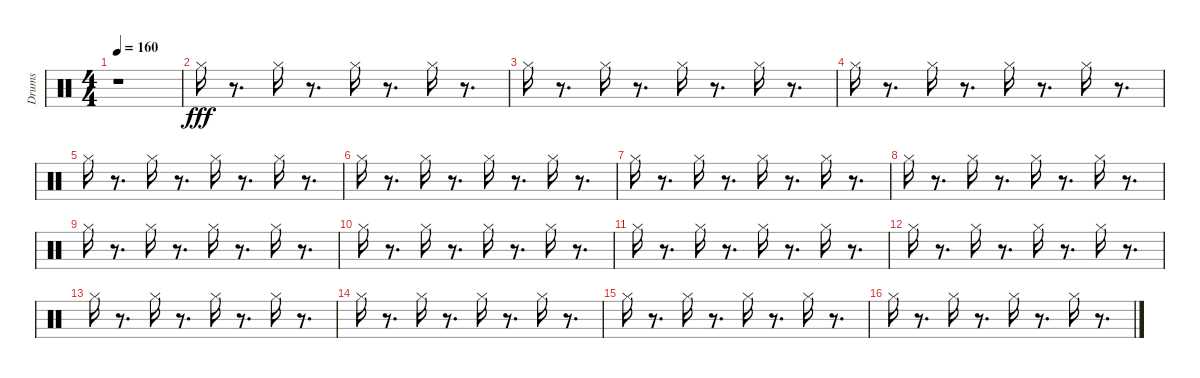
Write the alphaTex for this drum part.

\track ("Drums" "Drums") {instrument percussion}
\staff {score}
\articulation defaults
\ts (4 4)
\tempo 160
\clef neutral
\ks c
r.1{dy fff} |
"Hi-Hat (closed)".16 r.8{d} "Hi-Hat (closed)".16 r.8{d} "Hi-Hat (closed)".16 r.8{d} "Hi-Hat (closed)".16 r.8{d} |
"Hi-Hat (closed)".16 r.8{d} "Hi-Hat (closed)".16 r.8{d} "Hi-Hat (closed)".16 r.8{d} "Hi-Hat (closed)".16 r.8{d} |
"Hi-Hat (closed)".16 r.8{d} "Hi-Hat (closed)".16 r.8{d} "Hi-Hat (closed)".16 r.8{d} "Hi-Hat (closed)".16 r.8{d} |
"Hi-Hat (closed)".16 r.8{d} "Hi-Hat (closed)".16 r.8{d} "Hi-Hat (closed)".16 r.8{d} "Hi-Hat (closed)".16 r.8{d} |
"Hi-Hat (closed)".16 r.8{d} "Hi-Hat (closed)".16 r.8{d} "Hi-Hat (closed)".16 r.8{d} "Hi-Hat (closed)".16 r.8{d} |
"Hi-Hat (closed)".16 r.8{d} "Hi-Hat (closed)".16 r.8{d} "Hi-Hat (closed)".16 r.8{d} "Hi-Hat (closed)".16 r.8{d} |
"Hi-Hat (closed)".16 r.8{d} "Hi-Hat (closed)".16 r.8{d} "Hi-Hat (closed)".16 r.8{d} "Hi-Hat (closed)".16 r.8{d} |
"Hi-Hat (closed)".16 r.8{d} "Hi-Hat (closed)".16 r.8{d} "Hi-Hat (closed)".16 r.8{d} "Hi-Hat (closed)".16 r.8{d} |
"Hi-Hat (closed)".16 r.8{d} "Hi-Hat (closed)".16 r.8{d} "Hi-Hat (closed)".16 r.8{d} "Hi-Hat (closed)".16 r.8{d} |
"Hi-Hat (closed)".16 r.8{d} "Hi-Hat (closed)".16 r.8{d} "Hi-Hat (closed)".16 r.8{d} "Hi-Hat (closed)".16 r.8{d} |
"Hi-Hat (closed)".16 r.8{d} "Hi-Hat (closed)".16 r.8{d} "Hi-Hat (closed)".16 r.8{d} "Hi-Hat (closed)".16 r.8{d} |
"Hi-Hat (closed)".16 r.8{d} "Hi-Hat (closed)".16 r.8{d} "Hi-Hat (closed)".16 r.8{d} "Hi-Hat (closed)".16 r.8{d} |
"Hi-Hat (closed)".16 r.8{d} "Hi-Hat (closed)".16 r.8{d} "Hi-Hat (closed)".16 r.8{d} "Hi-Hat (closed)".16 r.8{d} |
"Hi-Hat (closed)".16 r.8{d} "Hi-Hat (closed)".16 r.8{d} "Hi-Hat (closed)".16 r.8{d} "Hi-Hat (closed)".16 r.8{d} |
"Hi-Hat (closed)".16 r.8{d} "Hi-Hat (closed)".16 r.8{d} "Hi-Hat (closed)".16 r.8{d} "Hi-Hat (closed)".16 r.8{d}
